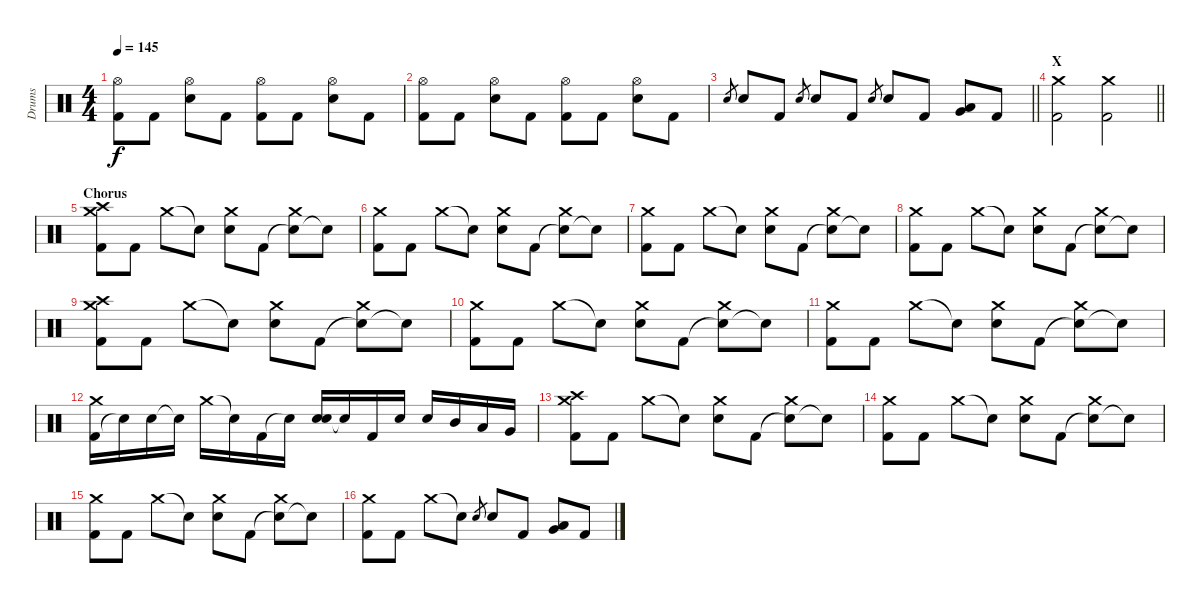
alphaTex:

\track ("Drums" "Drums") {instrument percussion}
\staff {score}
\articulation defaults
\ts (4 4)
\tempo 145
\clef neutral
\ks c
("Kick (hit) 2" "Hi-Hat (open)").8{dy f} "Kick (hit) 2".8 ("Electric Snare (hit)" "Hi-Hat (open)").8 "Kick (hit) 2".8 ("Kick (hit) 2" "Hi-Hat (open)").8 "Kick (hit) 2".8 ("Electric Snare (hit)" "Hi-Hat (open)").8 "Kick (hit) 2".8 |
("Kick (hit) 2" "Hi-Hat (open)").8 "Kick (hit) 2".8 ("Electric Snare (hit)" "Hi-Hat (open)").8 "Kick (hit) 2".8 ("Kick (hit) 2" "Hi-Hat (open)").8 "Kick (hit) 2".8 ("Electric Snare (hit)" "Hi-Hat (open)").8 "Kick (hit) 2".8 |
\barLineRight lightlight "Electric Snare (hit)".8{gr} "Electric Snare (hit)".8 "Kick (hit) 2".8 "Electric Snare (hit)".8{gr} "Electric Snare (hit)".8 "Kick (hit) 2".8 "Electric Snare (hit)".8{gr} "Electric Snare (hit)".8 "Kick (hit) 2".8
("Very Low Tom (hit)" "Low Tom (hit)").8 "Kick (hit) 2".8 |
\section ("" "X")
\barLineRight lightlight
("Kick (hit) 2" "Crash medium (hit)").2 ("Kick (hit) 2" "Crash medium (hit)").2 |
\section ("" "Chorus")
("Kick (hit) 2" "Crash medium (hit)" "Crash high (hit)").8 "Kick (hit) 2".8 "Crash medium (hit)".8 "Snare (hit)"{t}.8 ("Electric Snare (hit)" "Crash medium (hit)").8 "Kick (hit) 2".8 ("Snare (hit)"{t} "Crash medium (hit)").8 "Snare (hit)"{t}.8 |
("Kick (hit) 2" "Crash medium (hit)").8 "Kick (hit) 2".8 "Crash medium (hit)".8 "Snare (hit)"{t}.8 ("Electric Snare (hit)" "Crash medium (hit)").8 "Kick (hit) 2".8 ("Snare (hit)"{t} "Crash medium (hit)").8 "Snare (hit)"{t}.8 |
("Kick (hit) 2" "Crash medium (hit)").8 "Kick (hit) 2".8 "Crash medium (hit)".8 "Snare (hit)"{t}.8 ("Electric Snare (hit)" "Crash medium (hit)").8 "Kick (hit) 2".8 ("Snare (hit)"{t} "Crash medium (hit)").8 "Snare (hit)"{t}.8 |
("Kick (hit) 2" "Crash medium (hit)").8 "Kick (hit) 2".8 "Crash medium (hit)".8 "Snare (hit)"{t}.8 ("Electric Snare (hit)" "Crash medium (hit)").8 "Kick (hit) 2".8 ("Snare (hit)"{t} "Crash medium (hit)").8 "Snare (hit)"{t}.8 |
("Kick (hit) 2" "Crash medium (hit)" "Crash high (hit)").8 "Kick (hit) 2".8 "Crash medium (hit)".8 "Snare (hit)"{t}.8 ("Electric Snare (hit)" "Crash medium (hit)").8 "Kick (hit) 2".8 ("Snare (hit)"{t} "Crash medium (hit)").8 "Snare (hit)"{t}.8 |
("Kick (hit) 2" "Crash medium (hit)").8 "Kick (hit) 2".8 "Crash medium (hit)".8 "Snare (hit)"{t}.8 ("Electric Snare (hit)" "Crash medium (hit)").8 "Kick (hit) 2".8 ("Snare (hit)"{t} "Crash medium (hit)").8 "Snare (hit)"{t}.8 |
("Kick (hit) 2" "Crash medium (hit)").8 "Kick (hit) 2".8 "Crash medium (hit)".8 "Snare (hit)"{t}.8 ("Electric Snare (hit)" "Crash medium (hit)").8 "Kick (hit) 2".8 ("Snare (hit)"{t} "Crash medium (hit)").8 "Snare (hit)"{t}.8 |
("Kick (hit) 2" "Crash medium (hit)").16 "Snare (hit)"{t}.16 "Electric Snare (hit)".16 "Snare (hit)"{t}.16 "Crash medium (hit)".16 "Snare (hit)"{t}.16 "Kick (hit) 2".16 "Snare (hit)"{t}.16 ("Electric Snare (hit)" "Electric Snare (hit)").16 "Snare (hit)"{t}.16 "Kick (hit) 2".16 "Electric Snare (hit)".16 "Electric Snare (hit)".16 "Mid Tom (hit)".16 "Low Tom (hit)".16 "Very Low Tom (hit)".16 |
("Kick (hit) 2" "Crash medium (hit)" "Crash high (hit)").8 "Kick (hit) 2".8 "Crash medium (hit)".8 "Snare (hit)"{t}.8 ("Electric Snare (hit)" "Crash medium (hit)").8 "Kick (hit) 2".8 ("Snare (hit)"{t} "Crash medium (hit)").8 "Snare (hit)"{t}.8 |
("Kick (hit) 2" "Crash medium (hit)").8 "Kick (hit) 2".8 "Crash medium (hit)".8 "Snare (hit)"{t}.8 ("Electric Snare (hit)" "Crash medium (hit)").8 "Kick (hit) 2".8 ("Snare (hit)"{t} "Crash medium (hit)").8 "Snare (hit)"{t}.8 |
("Kick (hit) 2" "Crash medium (hit)").8 "Kick (hit) 2".8 "Crash medium (hit)".8 "Snare (hit)"{t}.8 ("Electric Snare (hit)" "Crash medium (hit)").8 "Kick (hit) 2".8 ("Snare (hit)"{t} "Crash medium (hit)").8 "Snare (hit)"{t}.8 |
("Kick (hit) 2" "Crash medium (hit)").8 "Kick (hit) 2".8 "Crash medium (hit)".8 "Snare (hit)"{t}.8 "Electric Snare (hit)".8{gr} "Electric Snare (hit)".8 "Kick (hit) 2".8 ("Low Tom (hit)" "Very Low Tom (hit)").8 "Kick (hit) 2".8
